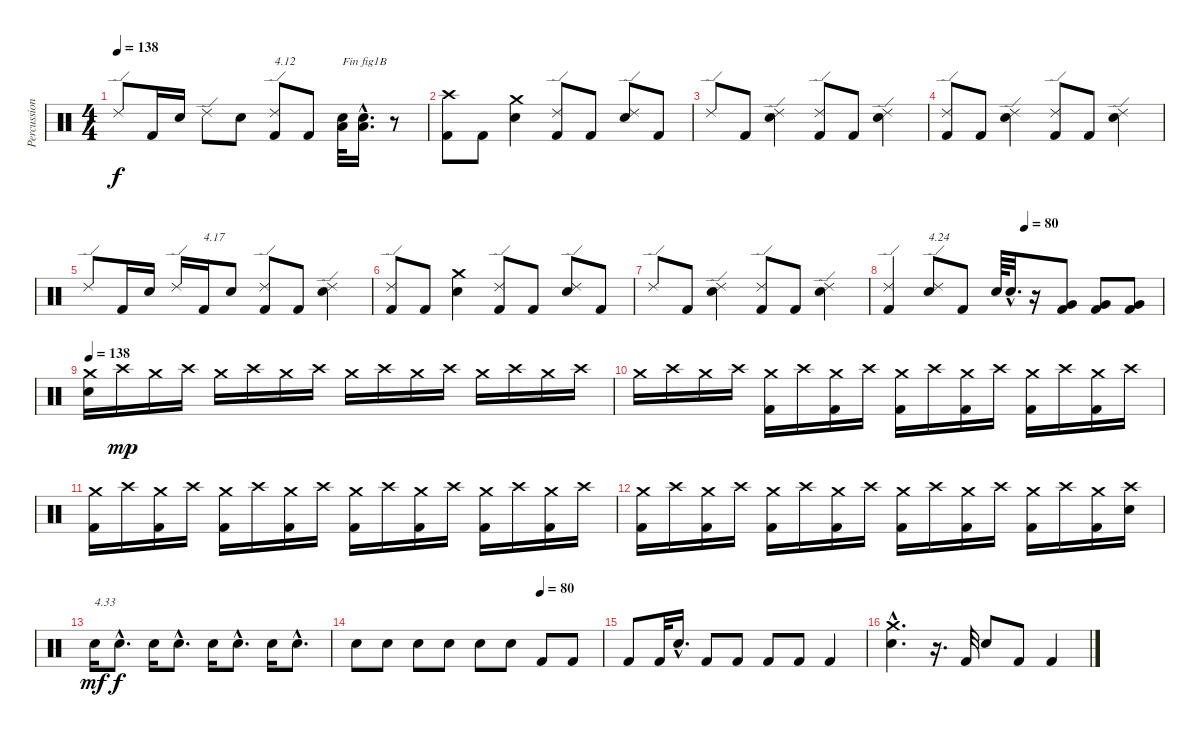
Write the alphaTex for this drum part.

\track ("Percussions" "Percussion") {instrument percussion}
\staff {score}
\articulation defaults
\ts (4 4)
\tempo 138
\clef neutral
\ks c "Ride (edge) 2".8{dy f} "Kick (hit) 2".16 "Electric Snare (hit)".16 "Ride (edge) 2".8 "Electric Snare (hit)".8
("Kick (hit) 2" "Ride (edge) 2").8{txt "4.12"} "Kick (hit) 2".8 ("Electric Snare (hit)" "Low Floor Tom (hit)").32{txt "Fin fig1B"} ("Electric Snare (hit)"{hac} "Low Floor Tom (hit)"{hac}).16{d} r.8 |
("Kick (hit) 2" "Crash high (hit)").8 "Kick (hit) 2".8 ("Electric Snare (hit)" "Crash medium (hit)").4 ("Kick (hit) 2" "Ride (edge) 2").8 "Kick (hit) 2".8 ("Electric Snare (hit)" "Ride (edge) 2").8 "Kick (hit) 2".8 |
"Ride (edge) 2".8 "Kick (hit) 2".8 ("Electric Snare (hit)" "Ride (edge) 2").4 ("Kick (hit) 2" "Ride (edge) 2").8 "Kick (hit) 2".8 ("Electric Snare (hit)" "Ride (edge) 2").4 |
("Kick (hit) 2" "Ride (edge) 2").8 "Kick (hit) 2".8 ("Electric Snare (hit)" "Ride (edge) 2").4 ("Kick (hit) 2" "Ride (edge) 2").8 "Kick (hit) 2".8 ("Electric Snare (hit)" "Ride (edge) 2").4 |
"Ride (edge) 2".8 "Kick (hit) 2".16 "Electric Snare (hit)".16 "Ride (edge) 2".16 "Kick (hit) 2".16{txt "4.17"} "Electric Snare (hit)".8 ("Kick (hit) 2" "Ride (edge) 2").8 "Kick (hit) 2".8 ("Electric Snare (hit)" "Ride (edge) 2").4 |
("Kick (hit) 2" "Ride (edge) 2").8 "Kick (hit) 2".8 ("Electric Snare (hit)" "Crash medium (hit)").4 ("Kick (hit) 2" "Ride (edge) 2").8 "Kick (hit) 2".8 ("Electric Snare (hit)" "Ride (edge) 2").8 "Kick (hit) 2".8 |
"Ride (edge) 2".8 "Kick (hit) 2".8 ("Electric Snare (hit)" "Ride (edge) 2").4 ("Kick (hit) 2" "Ride (edge) 2").8 "Kick (hit) 2".8 ("Electric Snare (hit)" "Ride (edge) 2").4 |
\tempo (80 0.5)
("Kick (hit) 2" "Ride (edge) 2").4 ("Electric Snare (hit)" "Ride (edge) 2").8{txt "4.24"} "Kick (hit) 2".8 "Electric Snare (hit)".64 "Electric Snare (hit)"{hac}.32{d} r.16 ("Kick (hit) 2" "Very Low Tom (hit)").8 ("Kick (hit) 2" "Very Low Tom (hit)").8 ("Kick (hit) 2" "Very Low Tom (hit)").8 |
\tempo 138
("Electric Snare (hit)" "Crash medium (hit)").16 "Crash high (hit)".16{dy mp} "Crash medium (hit)".16 "Crash high (hit)".16 "Crash medium (hit)".16 "Crash high (hit)".16 "Crash medium (hit)".16 "Crash high (hit)".16 "Crash medium (hit)".16 "Crash high (hit)".16 "Crash medium (hit)".16 "Crash high (hit)".16 "Crash medium (hit)".16 "Crash high (hit)".16 "Crash medium (hit)".16 "Crash high (hit)".16 |
"Crash medium (hit)".16 "Crash high (hit)".16 "Crash medium (hit)".16 "Crash high (hit)".16 ("Kick (hit) 2" "Crash medium (hit)").16 "Crash high (hit)".16 ("Kick (hit) 2" "Crash medium (hit)").16 "Crash high (hit)".16 ("Kick (hit) 2" "Crash medium (hit)").16 "Crash high (hit)".16 ("Kick (hit) 2" "Crash medium (hit)").16 "Crash high (hit)".16 ("Kick (hit) 2" "Crash medium (hit)").16 "Crash high (hit)".16 ("Kick (hit) 2" "Crash medium (hit)").16 "Crash high (hit)".16 |
("Kick (hit) 2" "Crash medium (hit)").16 "Crash high (hit)".16 ("Kick (hit) 2" "Crash medium (hit)").16 "Crash high (hit)".16 ("Kick (hit) 2" "Crash medium (hit)").16 "Crash high (hit)".16 ("Kick (hit) 2" "Crash medium (hit)").16 "Crash high (hit)".16 ("Kick (hit) 2" "Crash medium (hit)").16 "Crash high (hit)".16 ("Kick (hit) 2" "Crash medium (hit)").16 "Crash high (hit)".16 ("Kick (hit) 2" "Crash medium (hit)").16 "Crash high (hit)".16 ("Kick (hit) 2" "Crash medium (hit)").16 "Crash high (hit)".16 |
("Kick (hit) 2" "Crash medium (hit)").16 "Crash high (hit)".16 ("Kick (hit) 2" "Crash medium (hit)").16 "Crash high (hit)".16 ("Kick (hit) 2" "Crash medium (hit)").16 "Crash high (hit)".16 ("Kick (hit) 2" "Crash medium (hit)").16 "Crash high (hit)".16 ("Kick (hit) 2" "Crash medium (hit)").16 "Crash high (hit)".16 ("Kick (hit) 2" "Crash medium (hit)").16 "Crash high (hit)".16 ("Kick (hit) 2" "Crash medium (hit)").16 "Crash high (hit)".16 ("Kick (hit) 2" "Crash medium (hit)").16 ("Electric Snare (hit)" "Crash high (hit)").16 |
"Electric Snare (hit)".16{txt "4.33" dy mf} "Electric Snare (hit)"{hac}.8{d dy f} "Electric Snare (hit)".16 "Electric Snare (hit)"{hac}.8{d} "Electric Snare (hit)".16 "Electric Snare (hit)"{hac}.8{d} "Electric Snare (hit)".16 "Electric Snare (hit)"{hac}.8{d} |
\tempo (80 0.75)
"Electric Snare (hit)".8 "Electric Snare (hit)".8 "Electric Snare (hit)".8 "Electric Snare (hit)".8 "Electric Snare (hit)".8 "Electric Snare (hit)".8 "Kick (hit) 2".8 "Kick (hit) 2".8 |
"Kick (hit) 2".8 "Kick (hit) 2".32 "Electric Snare (hit)"{hac}.16{d} "Kick (hit) 2".8 "Kick (hit) 2".8 "Kick (hit) 2".8 "Kick (hit) 2".8 "Kick (hit) 2".4 |
("Electric Snare (hit)"{hac} "Crash medium (hit)"{hac}).4{d} r.16{d} "Kick (hit) 2".32 "Electric Snare (hit)".8 "Kick (hit) 2".8 "Kick (hit) 2".4
